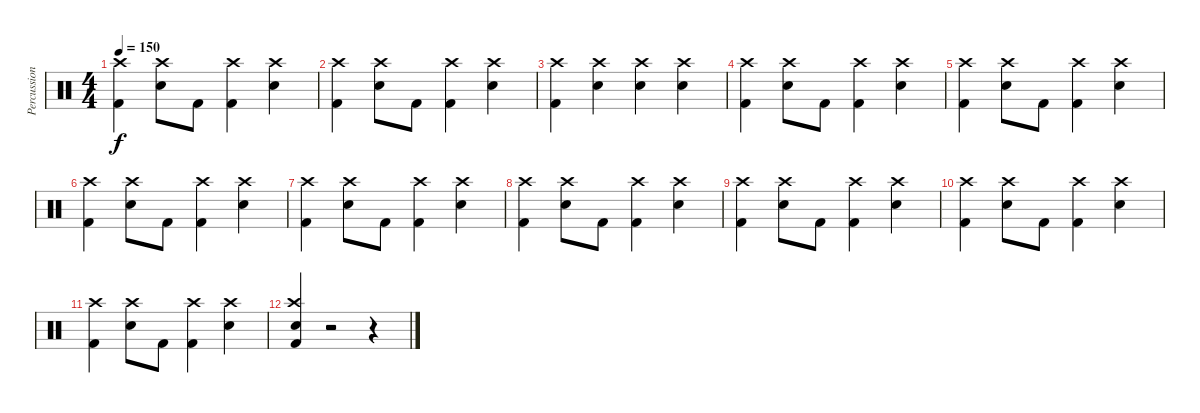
\track ("Percussions" "Percussion") {instrument percussion}
\staff {score}
\articulation defaults
\ts (4 4)
\tempo 150
\clef neutral
\ks c
("Kick (hit) 2" "Crash high (hit)").4{dy f} ("Snare (hit) 2" "Crash high (hit)").8 "Kick (hit) 2".8 ("Kick (hit) 2" "Crash high (hit)").4 ("Snare (hit) 2" "Crash high (hit)").4 |
("Kick (hit) 2" "Crash high (hit)").4 ("Snare (hit) 2" "Crash high (hit)").8 "Kick (hit) 2".8 ("Kick (hit) 2" "Crash high (hit)").4 ("Snare (hit) 2" "Crash high (hit)").4 |
("Kick (hit) 2" "Crash high (hit)").4 ("Snare (hit) 2" "Crash high (hit)").4 ("Snare (hit) 2" "Crash high (hit)").4 ("Snare (hit) 2" "Crash high (hit)").4 |
("Kick (hit) 2" "Crash high (hit)").4 ("Snare (hit) 2" "Crash high (hit)").8 "Kick (hit) 2".8 ("Kick (hit) 2" "Crash high (hit)").4 ("Snare (hit) 2" "Crash high (hit)").4 |
("Kick (hit) 2" "Crash high (hit)").4 ("Snare (hit) 2" "Crash high (hit)").8 "Kick (hit) 2".8 ("Kick (hit) 2" "Crash high (hit)").4 ("Snare (hit) 2" "Crash high (hit)").4 |
("Kick (hit) 2" "Crash high (hit)").4 ("Snare (hit) 2" "Crash high (hit)").8 "Kick (hit) 2".8 ("Kick (hit) 2" "Crash high (hit)").4 ("Snare (hit) 2" "Crash high (hit)").4 |
("Kick (hit) 2" "Crash high (hit)").4 ("Snare (hit) 2" "Crash high (hit)").8 "Kick (hit) 2".8 ("Kick (hit) 2" "Crash high (hit)").4 ("Snare (hit) 2" "Crash high (hit)").4 |
("Kick (hit) 2" "Crash high (hit)").4 ("Snare (hit) 2" "Crash high (hit)").8 "Kick (hit) 2".8 ("Kick (hit) 2" "Crash high (hit)").4 ("Snare (hit) 2" "Crash high (hit)").4 |
("Kick (hit) 2" "Crash high (hit)").4 ("Snare (hit) 2" "Crash high (hit)").8 "Kick (hit) 2".8 ("Kick (hit) 2" "Crash high (hit)").4 ("Snare (hit) 2" "Crash high (hit)").4 |
("Kick (hit) 2" "Crash high (hit)").4 ("Snare (hit) 2" "Crash high (hit)").8 "Kick (hit) 2".8 ("Kick (hit) 2" "Crash high (hit)").4 ("Snare (hit) 2" "Crash high (hit)").4 |
("Kick (hit) 2" "Crash high (hit)").4 ("Snare (hit) 2" "Crash high (hit)").8 "Kick (hit) 2".8 ("Kick (hit) 2" "Crash high (hit)").4 ("Snare (hit) 2" "Crash high (hit)").4 |
("Kick (hit) 2" "Snare (hit) 2" "Crash high (hit)").4 r.2 r.4
